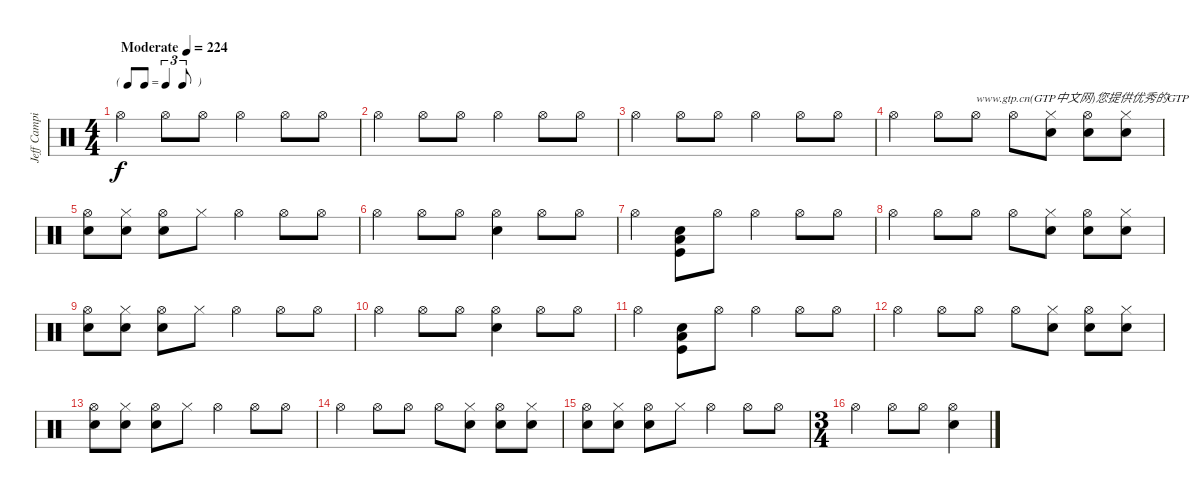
\track ("Jeff Campitelli" "Jeff Campi") {instrument percussion}
\staff {score}
\articulation defaults
\ts (4 4)
\tf triplet8th
\tempo (224 "Moderate")
\clef neutral
\ks c "Hi-Hat (open)".4{dy f} "Hi-Hat (open)".8 "Hi-Hat (open)".8 "Hi-Hat (open)".4 "Hi-Hat (open)".8 "Hi-Hat (open)".8
|
"Hi-Hat (open)".4 "Hi-Hat (open)".8 "Hi-Hat (open)".8 "Hi-Hat (open)".4 "Hi-Hat (open)".8 "Hi-Hat (open)".8 |
"Hi-Hat (open)".4 "Hi-Hat (open)".8 "Hi-Hat (open)".8 "Hi-Hat (open)".4 "Hi-Hat (open)".8 "Hi-Hat (open)".8 |
"Hi-Hat (open)".4 "Hi-Hat (open)".8 "Hi-Hat (open)".8{txt "www.gtp.cn(GTP中文网)您提供优秀的GTP"} "Hi-Hat (open)".8 ("Hi-Hat (closed)" "Snare (hit) 2").8 ("Snare (hit) 2" "Hi-Hat (open)").8 ("Hi-Hat (closed)" "Snare (hit) 2").8 |
("Snare (hit) 2" "Hi-Hat (open)").8 ("Snare (hit) 2" "Hi-Hat (closed)").8 ("Snare (hit) 2" "Hi-Hat (open)").8 "Hi-Hat (closed)".8 "Hi-Hat (open)".4 "Hi-Hat (open)".8 "Hi-Hat (open)".8 |
"Hi-Hat (open)".4 "Hi-Hat (open)".8 "Hi-Hat (open)".8 ("Snare (hit) 2" "Hi-Hat (open)").4 "Hi-Hat (open)".8 "Hi-Hat (open)".8 |
"Hi-Hat (open)".4 ("Kick (hit)" "Snare (hit) 2" "Low Floor Tom (hit)").8 "Hi-Hat (open)".8 "Hi-Hat (open)".4 "Hi-Hat (open)".8 "Hi-Hat (open)".8 |
"Hi-Hat (open)".4 "Hi-Hat (open)".8 "Hi-Hat (open)".8 "Hi-Hat (open)".8 ("Hi-Hat (closed)" "Snare (hit) 2").8 ("Snare (hit) 2" "Hi-Hat (open)").8 ("Hi-Hat (closed)" "Snare (hit) 2").8 |
("Snare (hit) 2" "Hi-Hat (open)").8 ("Snare (hit) 2" "Hi-Hat (closed)").8 ("Snare (hit) 2" "Hi-Hat (open)").8 "Hi-Hat (closed)".8 "Hi-Hat (open)".4 "Hi-Hat (open)".8 "Hi-Hat (open)".8 |
"Hi-Hat (open)".4 "Hi-Hat (open)".8 "Hi-Hat (open)".8 ("Snare (hit) 2" "Hi-Hat (open)").4 "Hi-Hat (open)".8 "Hi-Hat (open)".8 |
"Hi-Hat (open)".4 ("Kick (hit)" "Snare (hit) 2" "Low Floor Tom (hit)").8 "Hi-Hat (open)".8 "Hi-Hat (open)".4 "Hi-Hat (open)".8 "Hi-Hat (open)".8 |
"Hi-Hat (open)".4 "Hi-Hat (open)".8 "Hi-Hat (open)".8 "Hi-Hat (open)".8 ("Hi-Hat (closed)" "Snare (hit) 2").8 ("Snare (hit) 2" "Hi-Hat (open)").8 ("Hi-Hat (closed)" "Snare (hit) 2").8 |
("Snare (hit) 2" "Hi-Hat (open)").8 ("Snare (hit) 2" "Hi-Hat (closed)").8 ("Snare (hit) 2" "Hi-Hat (open)").8 "Hi-Hat (closed)".8 "Hi-Hat (open)".4 "Hi-Hat (open)".8 "Hi-Hat (open)".8 |
"Hi-Hat (open)".4 "Hi-Hat (open)".8 "Hi-Hat (open)".8 "Hi-Hat (open)".8 ("Hi-Hat (closed)" "Snare (hit) 2").8 ("Snare (hit) 2" "Hi-Hat (open)").8 ("Hi-Hat (closed)" "Snare (hit) 2").8 |
("Snare (hit) 2" "Hi-Hat (open)").8 ("Snare (hit) 2" "Hi-Hat (closed)").8 ("Snare (hit) 2" "Hi-Hat (open)").8 "Hi-Hat (closed)".8 "Hi-Hat (open)".4 "Hi-Hat (open)".8 "Hi-Hat (open)".8 |
\ts (3 4)
"Hi-Hat (open)".4 "Hi-Hat (open)".8 "Hi-Hat (open)".8 ("Snare (hit) 2" "Hi-Hat (open)").4
